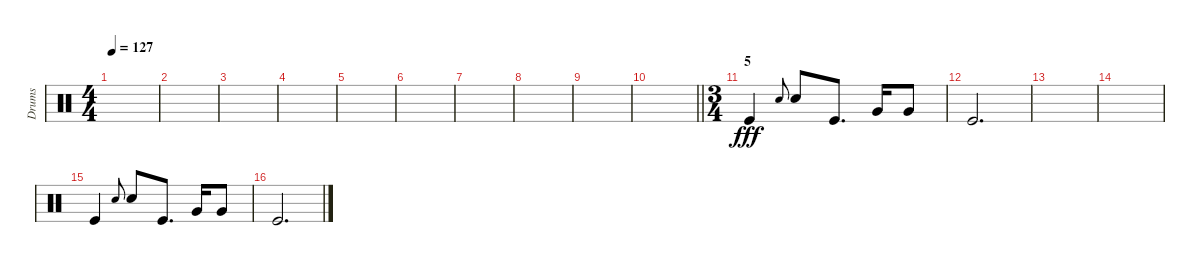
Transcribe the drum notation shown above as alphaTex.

\track ("Drums" "Drums") {instrument percussion}
\staff {score}
\articulation defaults
\ts (4 4)
\tempo 127
\clef neutral
\ks c
|
|
|
|
|
|
|
|
|
\barLineRight lightlight
|
\ts (3 4)
\section ("" "5")
"Kick (hit)".4{dy fff} "Snare (hit) 2".8{gr onbeat} "Snare (hit) 2".8 "Kick (hit)".8{d} "Very Low Tom (hit)".16 "Very Low Tom (hit)".8 |
"Kick (hit)".2{d} |
|
|
"Kick (hit)".4 "Snare (hit) 2".8{gr onbeat} "Snare (hit) 2".8 "Kick (hit)".8{d} "Very Low Tom (hit)".16 "Very Low Tom (hit)".8 |
"Kick (hit)".2{d}
